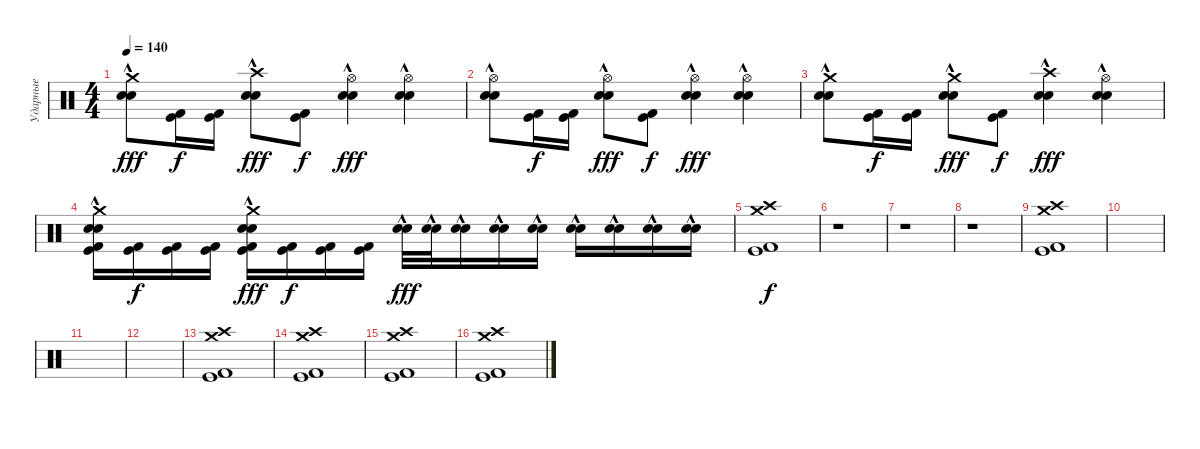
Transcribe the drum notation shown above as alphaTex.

\track ("Ударные" "Ударные") {instrument percussion}
\staff {score}
\articulation defaults
\ts (4 4)
\tempo 140
\clef neutral
\ks c
("Crash medium (hit)" "Snare (hit) 2"{hac} "Electric Snare (hit)"{hac}).8{dy fff} ("Kick (hit)" "Kick (hit) 2").16{dy f} ("Kick (hit)" "Kick (hit) 2").16 ("Crash high (hit)" "Snare (hit) 2"{hac} "Electric Snare (hit)"{hac}).8{dy fff} ("Kick (hit)" "Kick (hit) 2").8{dy f} ("Hi-Hat (open)" "Snare (hit) 2"{hac} "Electric Snare (hit)"{hac}).4{dy fff} ("Hi-Hat (open)" "Snare (hit) 2"{hac} "Electric Snare (hit)"{hac}).4 |
("Hi-Hat (open)" "Snare (hit) 2"{hac} "Electric Snare (hit)"{hac}).8 ("Kick (hit)" "Kick (hit) 2").16{dy f} ("Kick (hit)" "Kick (hit) 2").16 ("Hi-Hat (open)" "Snare (hit) 2"{hac} "Electric Snare (hit)"{hac}).8{dy fff} ("Kick (hit)" "Kick (hit) 2").8{dy f} ("Hi-Hat (open)" "Snare (hit) 2"{hac} "Electric Snare (hit)"{hac}).4{dy fff} ("Hi-Hat (open)" "Snare (hit) 2"{hac} "Electric Snare (hit)"{hac}).4 |
("Crash medium (hit)" "Snare (hit) 2"{hac} "Electric Snare (hit)"{hac}).8 ("Kick (hit)" "Kick (hit) 2").16{dy f} ("Kick (hit)" "Kick (hit) 2").16 ("Crash medium (hit)" "Snare (hit) 2"{hac} "Electric Snare (hit)"{hac}).8{dy fff} ("Kick (hit)" "Kick (hit) 2").8{dy f} ("Crash high (hit)" "Snare (hit) 2"{hac} "Electric Snare (hit)"{hac}).4{dy fff} ("Hi-Hat (open)" "Snare (hit) 2"{hac} "Electric Snare (hit)"{hac}).4 |
("Crash medium (hit)" "Kick (hit)" "Kick (hit) 2" "Snare (hit) 2"{hac} "Electric Snare (hit)"{hac}).16 ("Kick (hit)" "Kick (hit) 2").16{dy f} ("Kick (hit)" "Kick (hit) 2").16 ("Kick (hit)" "Kick (hit) 2").16 ("Crash medium (hit)" "Kick (hit)" "Kick (hit) 2" "Snare (hit) 2"{hac} "Electric Snare (hit)"{hac}).16{dy fff} ("Kick (hit)" "Kick (hit) 2").16{dy f} ("Kick (hit)" "Kick (hit) 2").16 ("Kick (hit)" "Kick (hit) 2").16 ("Snare (hit) 2"{hac} "Electric Snare (hit)"{hac}).32{dy fff} ("Snare (hit) 2"{hac} "Electric Snare (hit)"{hac}).32 ("Snare (hit) 2"{hac} "Electric Snare (hit)"{hac}).16 ("Snare (hit) 2"{hac} "Electric Snare (hit)"{hac}).16 ("Snare (hit) 2"{hac} "Electric Snare (hit)"{hac}).16 ("Snare (hit) 2"{hac} "Electric Snare (hit)"{hac}).16 ("Snare (hit) 2"{hac} "Electric Snare (hit)"{hac}).16 ("Snare (hit) 2"{hac} "Electric Snare (hit)"{hac}).16 ("Snare (hit) 2"{hac} "Electric Snare (hit)"{hac}).16 |
("Crash high (hit)" "Kick (hit)" "Kick (hit) 2" "Crash medium (hit)").1{dy f} |
r.1 |
r.1 |
r.1 |
("Crash high (hit)" "Kick (hit)" "Kick (hit) 2" "Crash medium (hit)").1 |
|
|
|
("Crash high (hit)" "Kick (hit)" "Kick (hit) 2" "Crash medium (hit)").1 |
("Crash high (hit)" "Kick (hit)" "Kick (hit) 2" "Crash medium (hit)").1 |
("Crash high (hit)" "Kick (hit)" "Kick (hit) 2" "Crash medium (hit)").1 |
("Crash high (hit)" "Kick (hit)" "Kick (hit) 2" "Crash medium (hit)").1
